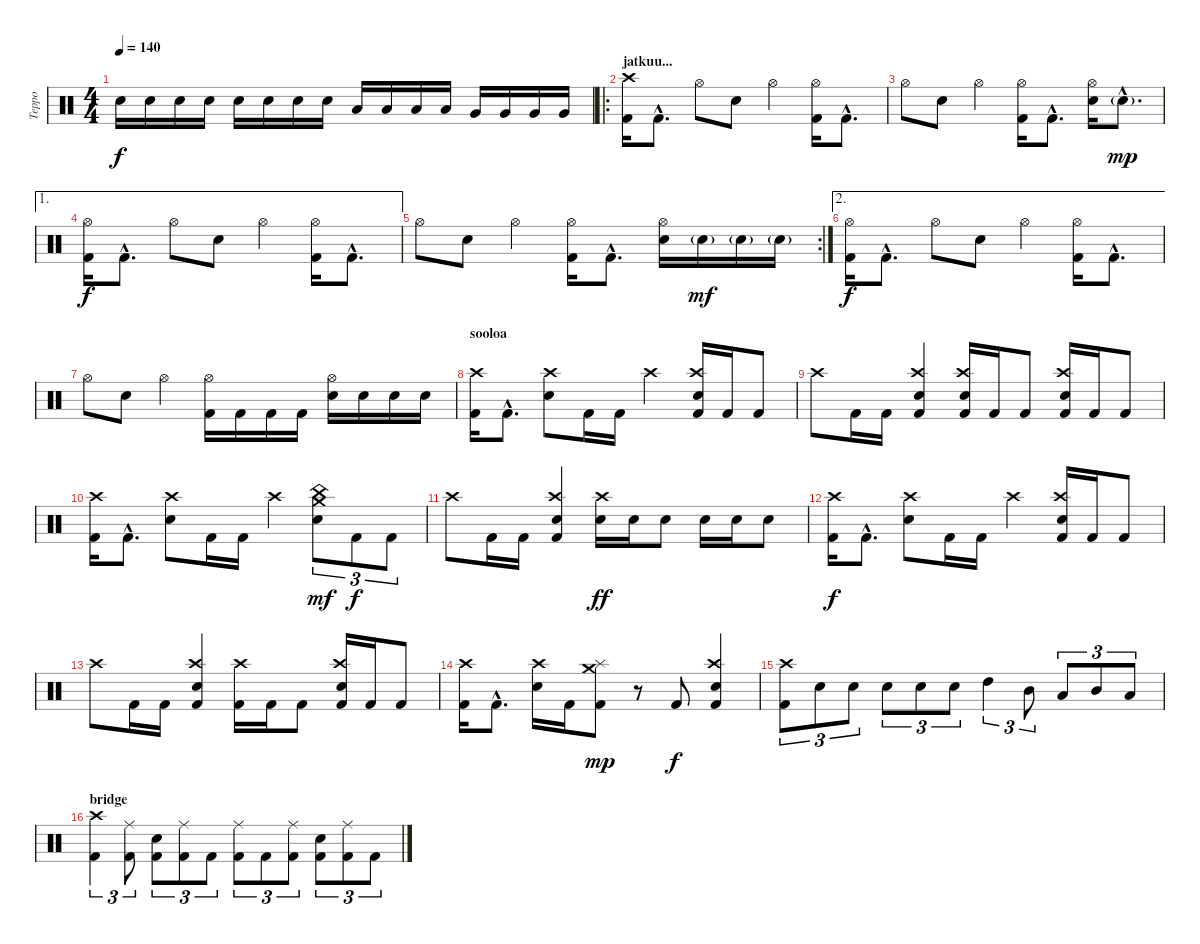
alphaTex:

\track ("Teppo" "Teppo") {instrument percussion}
\staff {score}
\articulation defaults
\ts (4 4)
\tempo 140
\clef neutral
\ks c "Electric Snare (hit)".16{dy f} "Electric Snare (hit)".16 "Electric Snare (hit)".16 "Electric Snare (hit)".16 "Electric Snare (hit)".16 "Electric Snare (hit)".16 "Electric Snare (hit)".16 "Electric Snare (hit)".16 "Low Tom (hit)".16 "Low Tom (hit)".16 "Low Tom (hit)".16 "Low Tom (hit)".16 "Very Low Tom (hit)".16 "Very Low Tom (hit)".16 "Very Low Tom (hit)".16 "Very Low Tom (hit)".16
|
\ro
\section ("" "jatkuu...")
("Crash high (hit)" "Kick (hit) 2").16 "Kick (hit) 2"{hac}.8{d} "Hi-Hat (open)".8 "Electric Snare (hit)".8 "Hi-Hat (open)".4 ("Hi-Hat (open)" "Kick (hit) 2").16 "Kick (hit) 2"{hac}.8{d} |
"Hi-Hat (open)".8 "Electric Snare (hit)".8 "Hi-Hat (open)".4 ("Hi-Hat (open)" "Kick (hit) 2").16 "Kick (hit) 2"{hac}.8{d} ("Hi-Hat (open)" "Electric Snare (hit)").16 "Electric Snare (hit)"{g hac}.8{d dy mp} |
\ae 1
("Hi-Hat (open)" "Kick (hit) 2").16{dy f} "Kick (hit) 2"{hac}.8{d} "Hi-Hat (open)".8 "Electric Snare (hit)".8 "Hi-Hat (open)".4 ("Hi-Hat (open)" "Kick (hit) 2").16 "Kick (hit) 2"{hac}.8{d} |
\rc 2 "Hi-Hat (open)".8 "Electric Snare (hit)".8 "Hi-Hat (open)".4
("Hi-Hat (open)" "Kick (hit) 2").16 "Kick (hit) 2"{hac}.8{d} ("Hi-Hat (open)" "Electric Snare (hit)").16 "Electric Snare (hit)"{g}.16{dy mf} "Electric Snare (hit)"{g}.16 "Electric Snare (hit)"{g}.16 |
\ae 2
("Hi-Hat (open)" "Kick (hit) 2").16{dy f} "Kick (hit) 2"{hac}.8{d} "Hi-Hat (open)".8 "Electric Snare (hit)".8 "Hi-Hat (open)".4 ("Hi-Hat (open)" "Kick (hit) 2").16 "Kick (hit) 2"{hac}.8{d} |
"Hi-Hat (open)".8 "Electric Snare (hit)".8 "Hi-Hat (open)".4 ("Hi-Hat (open)" "Kick (hit) 2").16 "Kick (hit) 2".16 "Kick (hit) 2".16 "Kick (hit) 2".16 ("Hi-Hat (open)" "Electric Snare (hit)").16 "Electric Snare (hit)".16 "Electric Snare (hit)".16 "Electric Snare (hit)".16 |
\section ("" "sooloa")
("Crash high (hit)" "Kick (hit) 2").16 "Kick (hit) 2"{hac}.8{d} ("Crash high (hit)" "Electric Snare (hit)").8 "Kick (hit) 2".16 "Kick (hit) 2".16 "Crash high (hit)".4 ("Crash high (hit)" "Electric Snare (hit)" "Kick (hit) 2").16 "Kick (hit) 2".16 "Kick (hit) 2".8 |
"Crash high (hit)".8 "Kick (hit) 2".16 "Kick (hit) 2".16 ("Crash high (hit)" "Electric Snare (hit)" "Kick (hit) 2").4 ("Crash high (hit)" "Electric Snare (hit)" "Kick (hit) 2").16 "Kick (hit) 2".16 "Kick (hit) 2".8 ("Crash high (hit)" "Electric Snare (hit)" "Kick (hit) 2").16 "Kick (hit) 2".16 "Kick (hit) 2".8 |
("Crash high (hit)" "Kick (hit) 2").16 "Kick (hit) 2"{hac}.8{d} ("Crash high (hit)" "Electric Snare (hit)").8 "Kick (hit) 2".16 "Kick (hit) 2".16 "Crash high (hit)".4 ("China (hit)" "Crash medium (hit)" "Electric Snare (hit)").8{tu (3 2) dy mf} "Kick (hit) 2".8{tu (3 2) dy f} "Kick (hit) 2".8{tu (3 2)} |
"Crash high (hit)".8 "Kick (hit) 2".16 "Kick (hit) 2".16 ("Crash high (hit)" "Electric Snare (hit)" "Kick (hit) 2").4 ("Crash high (hit)" "Electric Snare (hit)").16{dy ff} "Electric Snare (hit)".16 "Electric Snare (hit)".8 "Electric Snare (hit)".16 "Electric Snare (hit)".16 "Electric Snare (hit)".8 |
("Crash high (hit)" "Kick (hit) 2").16{dy f} "Kick (hit) 2"{hac}.8{d} ("Crash high (hit)" "Electric Snare (hit)").8 "Kick (hit) 2".16 "Kick (hit) 2".16 "Crash high (hit)".4 ("Crash high (hit)" "Electric Snare (hit)" "Kick (hit) 2").16 "Kick (hit) 2".16 "Kick (hit) 2".8 |
"Crash high (hit)".8 "Kick (hit) 2".16 "Kick (hit) 2".16 ("Crash high (hit)" "Electric Snare (hit)" "Kick (hit) 2").4 ("Crash high (hit)" "Kick (hit) 2").16 "Kick (hit) 2".16 "Kick (hit) 2".8 ("Crash high (hit)" "Electric Snare (hit)" "Kick (hit) 2").16 "Kick (hit) 2".16 "Kick (hit) 2".8 |
("Crash high (hit)" "Kick (hit) 2").16 "Kick (hit) 2"{hac}.8{d} ("Crash high (hit)" "Electric Snare (hit)").16 "Kick (hit) 2".16 ("Crash medium (hit)" "Splash (hit)" "Kick (hit) 2").8{dy mp} r.8 "Kick (hit) 2".8{dy f} ("Crash high (hit)" "Electric Snare (hit)" "Kick (hit) 2").4 |
("Crash high (hit)" "Kick (hit) 2").8{tu (3 2)} "Electric Snare (hit)".8{tu (3 2)} "Electric Snare (hit)".8{tu (3 2)} "Electric Snare (hit)".8{tu (3 2)} "Electric Snare (hit)".8{tu (3 2)} "Electric Snare (hit)".8{tu (3 2)} "High Tom (hit)".4{tu (3 2)} "Mid Tom (hit)".8{tu (3 2)} "Low Tom (hit)".8{tu (3 2)} "Mid Tom (hit)".8{tu (3 2)} "Low Tom (hit)".8{tu (3 2)} |
\section ("" "bridge")
("Crash high (hit)" "Kick (hit) 2").4{tu (3 2)} ("Ride (middle)" "Kick (hit) 2").8{tu (3 2)} ("Electric Snare (hit)" "Kick (hit) 2").8{tu (3 2)} ("Ride (middle)" "Kick (hit) 2").8{tu (3 2)} "Kick (hit) 2".8{tu (3 2)} ("Ride (middle)" "Kick (hit) 2").8{tu (3 2)} "Kick (hit) 2".8{tu (3 2)} ("Ride (middle)" "Kick (hit) 2").8{tu (3 2)} ("Electric Snare (hit)" "Kick (hit) 2").8{tu (3 2)} ("Ride (middle)" "Kick (hit) 2").8{tu (3 2)} "Kick (hit) 2".8{tu (3 2)}
